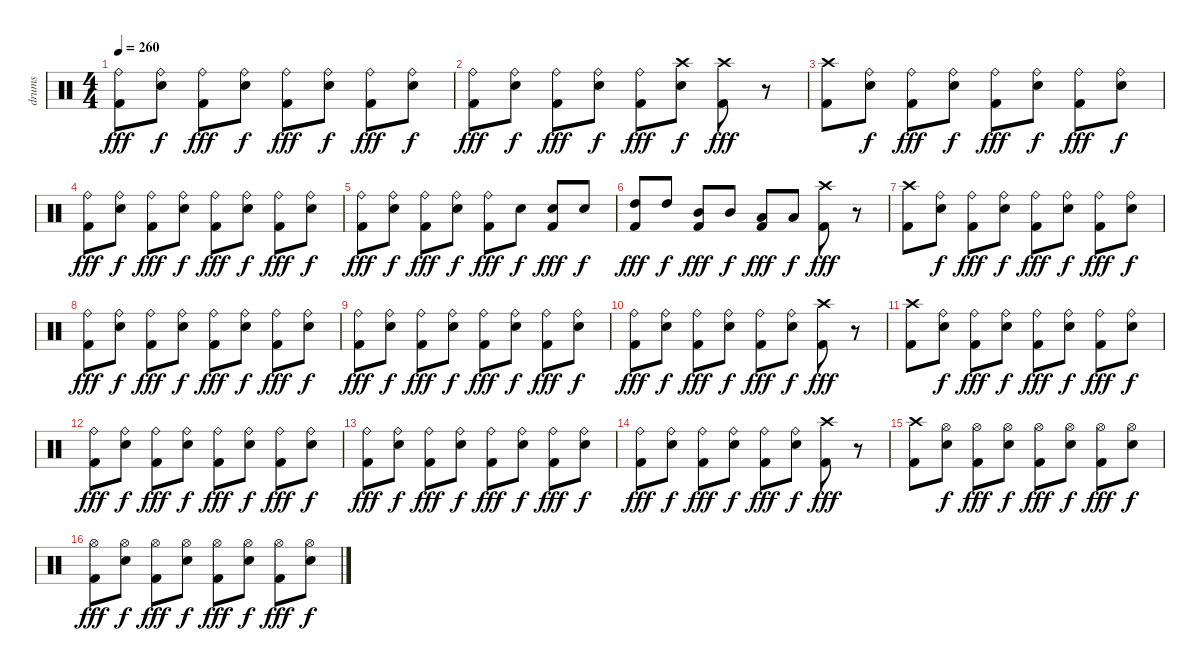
\track ("drums" "drums") {instrument percussion}
\staff {score}
\articulation defaults
\ts (4 4)
\tempo 260
\clef neutral
\ks c
("Ride (bell)" "Kick (hit) 2").8{dy fff} ("Ride (bell)" "Snare (hit) 2").8{dy f} ("Ride (bell)" "Kick (hit) 2").8{dy fff} ("Ride (bell)" "Snare (hit) 2").8{dy f} ("Ride (bell)" "Kick (hit) 2").8{dy fff} ("Ride (bell)" "Snare (hit) 2").8{dy f} ("Ride (bell)" "Kick (hit) 2").8{dy fff} ("Ride (bell)" "Snare (hit) 2").8{dy f} |
("Ride (bell)" "Kick (hit) 2").8{dy fff} ("Ride (bell)" "Snare (hit) 2").8{dy f} ("Ride (bell)" "Kick (hit) 2").8{dy fff} ("Ride (bell)" "Snare (hit) 2").8{dy f} ("Ride (bell)" "Kick (hit) 2").8{dy fff} ("Crash high (hit)" "Snare (hit) 2").8{dy f} ("Crash high (hit)" "Kick (hit) 2").8{dy fff} r.8 |
("Crash high (hit)" "Kick (hit) 2").8 ("Ride (bell)" "Snare (hit) 2").8{dy f} ("Ride (bell)" "Kick (hit) 2").8{dy fff} ("Ride (bell)" "Snare (hit) 2").8{dy f} ("Ride (bell)" "Kick (hit) 2").8{dy fff} ("Ride (bell)" "Snare (hit) 2").8{dy f} ("Ride (bell)" "Kick (hit) 2").8{dy fff} ("Ride (bell)" "Snare (hit) 2").8{dy f} |
("Ride (bell)" "Kick (hit) 2").8{dy fff} ("Ride (bell)" "Snare (hit) 2").8{dy f} ("Ride (bell)" "Kick (hit) 2").8{dy fff} ("Ride (bell)" "Snare (hit) 2").8{dy f} ("Ride (bell)" "Kick (hit) 2").8{dy fff} ("Ride (bell)" "Snare (hit) 2").8{dy f} ("Ride (bell)" "Kick (hit) 2").8{dy fff} ("Ride (bell)" "Snare (hit) 2").8{dy f} |
("Ride (bell)" "Kick (hit) 2").8{dy fff} ("Ride (bell)" "Snare (hit) 2").8{dy f} ("Ride (bell)" "Kick (hit) 2").8{dy fff} ("Ride (bell)" "Snare (hit) 2").8{dy f} ("Ride (bell)" "Kick (hit) 2").8{dy fff} "Snare (hit) 2".8{dy f} ("Snare (hit) 2" "Kick (hit) 2").8{dy fff} "Snare (hit) 2".8{dy f} |
("High Tom (hit)" "Kick (hit) 2").8{dy fff} "High Tom (hit)".8{dy f} ("Mid Tom (hit)" "Kick (hit) 2").8{dy fff} "Mid Tom (hit)".8{dy f} ("Low Tom (hit)" "Kick (hit) 2").8{dy fff} "Low Tom (hit)".8{dy f} ("Crash high (hit)" "Kick (hit) 2").8{dy fff} r.8 |
("Crash high (hit)" "Kick (hit) 2").8 ("Ride (bell)" "Snare (hit) 2").8{dy f} ("Ride (bell)" "Kick (hit) 2").8{dy fff} ("Ride (bell)" "Snare (hit) 2").8{dy f} ("Ride (bell)" "Kick (hit) 2").8{dy fff} ("Ride (bell)" "Snare (hit) 2").8{dy f} ("Ride (bell)" "Kick (hit) 2").8{dy fff} ("Ride (bell)" "Snare (hit) 2").8{dy f} |
("Ride (bell)" "Kick (hit) 2").8{dy fff} ("Ride (bell)" "Snare (hit) 2").8{dy f} ("Ride (bell)" "Kick (hit) 2").8{dy fff} ("Ride (bell)" "Snare (hit) 2").8{dy f} ("Ride (bell)" "Kick (hit) 2").8{dy fff} ("Ride (bell)" "Snare (hit) 2").8{dy f} ("Ride (bell)" "Kick (hit) 2").8{dy fff} ("Ride (bell)" "Snare (hit) 2").8{dy f} |
("Ride (bell)" "Kick (hit) 2").8{dy fff} ("Ride (bell)" "Snare (hit) 2").8{dy f} ("Ride (bell)" "Kick (hit) 2").8{dy fff} ("Ride (bell)" "Snare (hit) 2").8{dy f} ("Ride (bell)" "Kick (hit) 2").8{dy fff} ("Ride (bell)" "Snare (hit) 2").8{dy f} ("Ride (bell)" "Kick (hit) 2").8{dy fff} ("Ride (bell)" "Snare (hit) 2").8{dy f} |
("Ride (bell)" "Kick (hit) 2").8{dy fff} ("Ride (bell)" "Snare (hit) 2").8{dy f} ("Ride (bell)" "Kick (hit) 2").8{dy fff} ("Ride (bell)" "Snare (hit) 2").8{dy f} ("Ride (bell)" "Kick (hit) 2").8{dy fff} ("Ride (bell)" "Snare (hit) 2").8{dy f} ("Crash high (hit)" "Kick (hit) 2").8{dy fff} r.8 |
("Crash high (hit)" "Kick (hit) 2").8 ("Ride (bell)" "Snare (hit) 2").8{dy f} ("Ride (bell)" "Kick (hit) 2").8{dy fff} ("Ride (bell)" "Snare (hit) 2").8{dy f} ("Ride (bell)" "Kick (hit) 2").8{dy fff} ("Ride (bell)" "Snare (hit) 2").8{dy f} ("Ride (bell)" "Kick (hit) 2").8{dy fff} ("Ride (bell)" "Snare (hit) 2").8{dy f} |
("Ride (bell)" "Kick (hit) 2").8{dy fff} ("Ride (bell)" "Snare (hit) 2").8{dy f} ("Ride (bell)" "Kick (hit) 2").8{dy fff} ("Ride (bell)" "Snare (hit) 2").8{dy f} ("Ride (bell)" "Kick (hit) 2").8{dy fff} ("Ride (bell)" "Snare (hit) 2").8{dy f} ("Ride (bell)" "Kick (hit) 2").8{dy fff} ("Ride (bell)" "Snare (hit) 2").8{dy f} |
("Ride (bell)" "Kick (hit) 2").8{dy fff} ("Ride (bell)" "Snare (hit) 2").8{dy f} ("Ride (bell)" "Kick (hit) 2").8{dy fff} ("Ride (bell)" "Snare (hit) 2").8{dy f} ("Ride (bell)" "Kick (hit) 2").8{dy fff} ("Ride (bell)" "Snare (hit) 2").8{dy f} ("Ride (bell)" "Kick (hit) 2").8{dy fff} ("Ride (bell)" "Snare (hit) 2").8{dy f} |
("Ride (bell)" "Kick (hit) 2").8{dy fff} ("Ride (bell)" "Snare (hit) 2").8{dy f} ("Ride (bell)" "Kick (hit) 2").8{dy fff} ("Ride (bell)" "Snare (hit) 2").8{dy f} ("Ride (bell)" "Kick (hit) 2").8{dy fff} ("Ride (bell)" "Snare (hit) 2").8{dy f} ("Crash high (hit)" "Kick (hit) 2").8{dy fff} r.8 |
("Crash high (hit)" "Kick (hit) 2").8 ("Hi-Hat (open)" "Snare (hit) 2").8{dy f} ("Hi-Hat (open)" "Kick (hit) 2").8{dy fff} ("Hi-Hat (open)" "Snare (hit) 2").8{dy f} ("Hi-Hat (open)" "Kick (hit) 2").8{dy fff} ("Hi-Hat (open)" "Snare (hit) 2").8{dy f} ("Hi-Hat (open)" "Kick (hit) 2").8{dy fff} ("Hi-Hat (open)" "Snare (hit) 2").8{dy f} |
("Hi-Hat (open)" "Kick (hit) 2").8{dy fff} ("Hi-Hat (open)" "Snare (hit) 2").8{dy f} ("Hi-Hat (open)" "Kick (hit) 2").8{dy fff} ("Hi-Hat (open)" "Snare (hit) 2").8{dy f} ("Hi-Hat (open)" "Kick (hit) 2").8{dy fff} ("Hi-Hat (open)" "Snare (hit) 2").8{dy f} ("Hi-Hat (open)" "Kick (hit) 2").8{dy fff} ("Hi-Hat (open)" "Snare (hit) 2").8{dy f}
